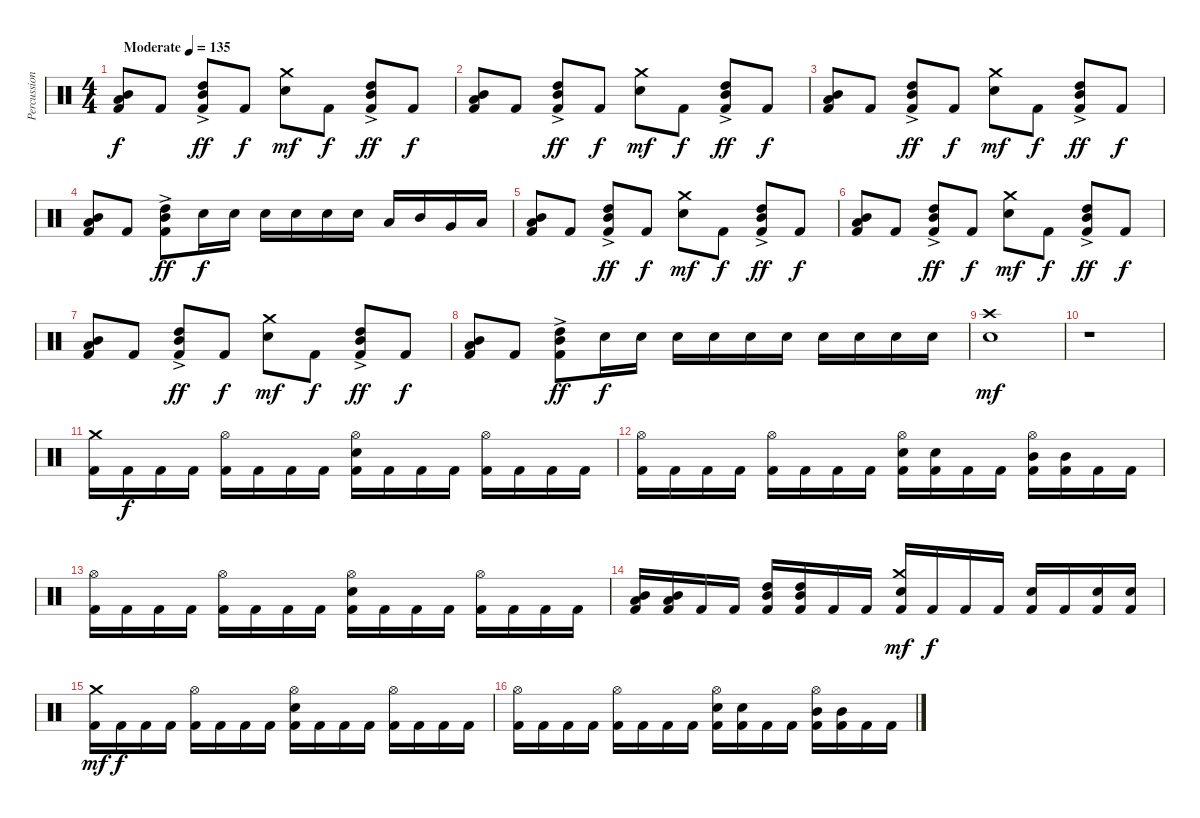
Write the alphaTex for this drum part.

\track ("Percussion" "Percussion") {instrument percussion}
\staff {score}
\articulation defaults
\ts (4 4)
\tempo (135 "Moderate")
\clef neutral
\ks c
("Mid Tom (hit)" "Low Tom (hit)" "Kick (hit) 2").8{dy f} "Kick (hit) 2".8 ("High Tom (hit)"{ac} "Mid Tom (hit)"{ac} "Kick (hit) 2").8{dy ff} "Kick (hit) 2".8{dy f} ("Crash medium (hit)" "Snare (hit) 2").8{dy mf} "Kick (hit) 2".8{dy f} ("High Tom (hit)"{ac} "Mid Tom (hit)"{ac} "Kick (hit) 2").8{dy ff} "Kick (hit) 2".8{dy f} |
("Mid Tom (hit)" "Low Tom (hit)" "Kick (hit) 2").8 "Kick (hit) 2".8 ("High Tom (hit)"{ac} "Mid Tom (hit)"{ac} "Kick (hit) 2").8{dy ff} "Kick (hit) 2".8{dy f} ("Crash medium (hit)" "Snare (hit) 2").8{dy mf} "Kick (hit) 2".8{dy f} ("High Tom (hit)"{ac} "Mid Tom (hit)"{ac} "Kick (hit) 2").8{dy ff} "Kick (hit) 2".8{dy f} |
("Mid Tom (hit)" "Low Tom (hit)" "Kick (hit) 2").8 "Kick (hit) 2".8 ("High Tom (hit)"{ac} "Mid Tom (hit)"{ac} "Kick (hit) 2").8{dy ff} "Kick (hit) 2".8{dy f} ("Crash medium (hit)" "Snare (hit) 2").8{dy mf} "Kick (hit) 2".8{dy f} ("High Tom (hit)"{ac} "Mid Tom (hit)"{ac} "Kick (hit) 2").8{dy ff} "Kick (hit) 2".8{dy f} |
("Mid Tom (hit)" "Low Tom (hit)" "Kick (hit) 2").8 "Kick (hit) 2".8 ("High Tom (hit)"{ac} "Mid Tom (hit)"{ac} "Kick (hit) 2").8{dy ff} "Snare (hit) 2".16{dy f} "Snare (hit) 2".16 "Snare (hit) 2".16 "Snare (hit) 2".16 "Snare (hit) 2".16 "Snare (hit) 2".16 "Low Tom (hit)".16 "Mid Tom (hit)".16 "Very Low Tom (hit)".16 "Low Tom (hit)".16 |
("Mid Tom (hit)" "Low Tom (hit)" "Kick (hit) 2").8 "Kick (hit) 2".8 ("High Tom (hit)"{ac} "Mid Tom (hit)"{ac} "Kick (hit) 2").8{dy ff} "Kick (hit) 2".8{dy f} ("Crash medium (hit)" "Snare (hit) 2").8{dy mf} "Kick (hit) 2".8{dy f} ("High Tom (hit)"{ac} "Mid Tom (hit)"{ac} "Kick (hit) 2").8{dy ff} "Kick (hit) 2".8{dy f} |
("Mid Tom (hit)" "Low Tom (hit)" "Kick (hit) 2").8 "Kick (hit) 2".8 ("High Tom (hit)"{ac} "Mid Tom (hit)"{ac} "Kick (hit) 2").8{dy ff} "Kick (hit) 2".8{dy f} ("Crash medium (hit)" "Snare (hit) 2").8{dy mf} "Kick (hit) 2".8{dy f} ("High Tom (hit)"{ac} "Mid Tom (hit)"{ac} "Kick (hit) 2").8{dy ff} "Kick (hit) 2".8{dy f} |
("Mid Tom (hit)" "Low Tom (hit)" "Kick (hit) 2").8 "Kick (hit) 2".8 ("High Tom (hit)"{ac} "Mid Tom (hit)"{ac} "Kick (hit) 2").8{dy ff} "Kick (hit) 2".8{dy f} ("Crash medium (hit)" "Snare (hit) 2").8{dy mf} "Kick (hit) 2".8{dy f} ("High Tom (hit)"{ac} "Mid Tom (hit)"{ac} "Kick (hit) 2").8{dy ff} "Kick (hit) 2".8{dy f} |
("Mid Tom (hit)" "Low Tom (hit)" "Kick (hit) 2").8 "Kick (hit) 2".8 ("High Tom (hit)"{ac} "Mid Tom (hit)"{ac} "Kick (hit) 2").8{dy ff} "Snare (hit) 2".16{dy f} "Snare (hit) 2".16 "Snare (hit) 2".16 "Snare (hit) 2".16 "Snare (hit) 2".16 "Snare (hit) 2".16 "Snare (hit) 2".16 "Snare (hit) 2".16 "Snare (hit) 2".16 "Snare (hit) 2".16 |
("Crash high (hit)" "Snare (hit) 2").1{dy mf} |
r.1 |
("Crash medium (hit)" "Kick (hit) 2").16 "Kick (hit) 2".16{dy f} "Kick (hit) 2".16 "Kick (hit) 2".16 ("Hi-Hat (open)" "Kick (hit) 2").16 "Kick (hit) 2".16 "Kick (hit) 2".16 "Kick (hit) 2".16 ("Hi-Hat (open)" "Snare (hit) 2" "Kick (hit) 2").16 "Kick (hit) 2".16 "Kick (hit) 2".16 "Kick (hit) 2".16 ("Hi-Hat (open)" "Kick (hit) 2").16 "Kick (hit) 2".16 "Kick (hit) 2".16 "Kick (hit) 2".16 |
("Hi-Hat (open)" "Kick (hit) 2").16 "Kick (hit) 2".16 "Kick (hit) 2".16 "Kick (hit) 2".16 ("Hi-Hat (open)" "Kick (hit) 2").16 "Kick (hit) 2".16 "Kick (hit) 2".16 "Kick (hit) 2".16 ("Hi-Hat (open)" "Snare (hit) 2" "Kick (hit) 2").16 ("Snare (hit) 2" "Kick (hit) 2").16 "Kick (hit) 2".16 "Kick (hit) 2".16 ("Hi-Hat (open)" "Mid Tom (hit)" "Kick (hit) 2").16 ("Mid Tom (hit)" "Kick (hit) 2").16 "Kick (hit) 2".16 "Kick (hit) 2".16 |
("Hi-Hat (open)" "Kick (hit) 2").16 "Kick (hit) 2".16 "Kick (hit) 2".16 "Kick (hit) 2".16 ("Hi-Hat (open)" "Kick (hit) 2").16 "Kick (hit) 2".16 "Kick (hit) 2".16 "Kick (hit) 2".16 ("Hi-Hat (open)" "Snare (hit) 2" "Kick (hit) 2").16 "Kick (hit) 2".16 "Kick (hit) 2".16 "Kick (hit) 2".16 ("Hi-Hat (open)" "Kick (hit) 2").16 "Kick (hit) 2".16 "Kick (hit) 2".16 "Kick (hit) 2".16 |
("Mid Tom (hit)" "Low Tom (hit)" "Kick (hit) 2").16 ("Mid Tom (hit)" "Low Tom (hit)" "Kick (hit) 2").16 "Kick (hit) 2".16 "Kick (hit) 2".16 ("High Tom (hit)" "Mid Tom (hit)" "Kick (hit) 2").16 ("High Tom (hit)" "Mid Tom (hit)" "Kick (hit) 2").16 "Kick (hit) 2".16 "Kick (hit) 2".16 ("Crash medium (hit)" "Snare (hit) 2" "Kick (hit) 2").16{dy mf} "Kick (hit) 2".16{dy f} "Kick (hit) 2".16 "Kick (hit) 2".16 ("Snare (hit) 2" "Kick (hit) 2").16 "Kick (hit) 2".16 ("Snare (hit) 2" "Kick (hit) 2").16 ("Snare (hit) 2" "Kick (hit) 2").16 |
("Crash medium (hit)" "Kick (hit) 2").16{dy mf} "Kick (hit) 2".16{dy f} "Kick (hit) 2".16 "Kick (hit) 2".16 ("Hi-Hat (open)" "Kick (hit) 2").16 "Kick (hit) 2".16 "Kick (hit) 2".16 "Kick (hit) 2".16 ("Hi-Hat (open)" "Snare (hit) 2" "Kick (hit) 2").16 "Kick (hit) 2".16 "Kick (hit) 2".16 "Kick (hit) 2".16 ("Hi-Hat (open)" "Kick (hit) 2").16 "Kick (hit) 2".16 "Kick (hit) 2".16 "Kick (hit) 2".16 |
("Hi-Hat (open)" "Kick (hit) 2").16 "Kick (hit) 2".16 "Kick (hit) 2".16 "Kick (hit) 2".16 ("Hi-Hat (open)" "Kick (hit) 2").16 "Kick (hit) 2".16 "Kick (hit) 2".16 "Kick (hit) 2".16 ("Hi-Hat (open)" "Snare (hit) 2" "Kick (hit) 2").16 ("Snare (hit) 2" "Kick (hit) 2").16 "Kick (hit) 2".16 "Kick (hit) 2".16 ("Hi-Hat (open)" "Mid Tom (hit)" "Kick (hit) 2").16 ("Mid Tom (hit)" "Kick (hit) 2").16 "Kick (hit) 2".16 "Kick (hit) 2".16
